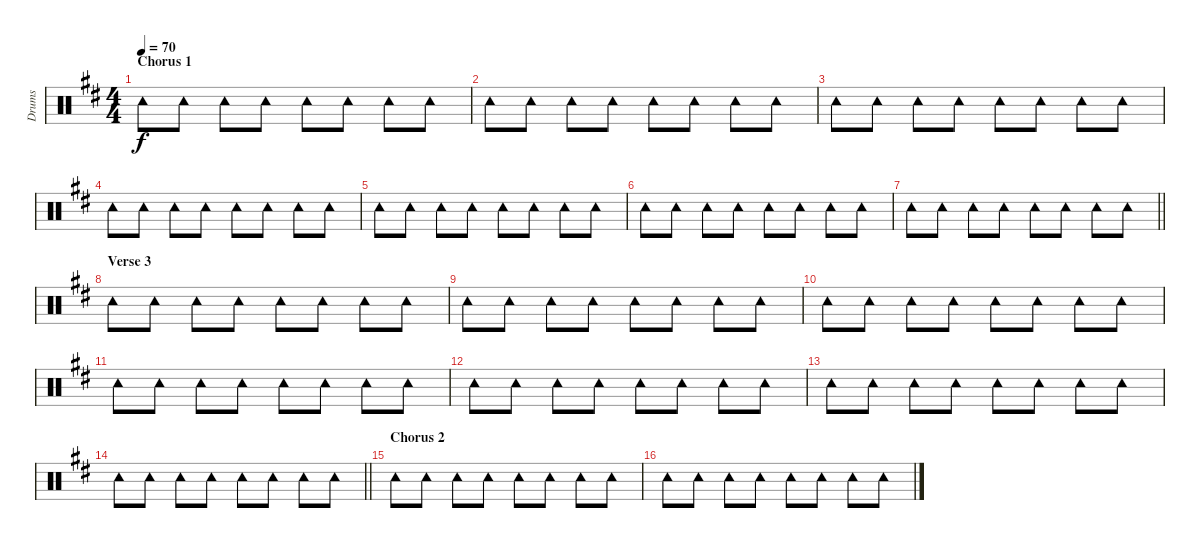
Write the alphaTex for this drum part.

\track ("Drums" "Drums") {instrument percussion}
\staff {score}
\articulation defaults
\ts (4 4)
\section ("" "Chorus 1")
\tempo 70
\clef neutral
\ks bminor "Tambourine (hit)".8{dy f} "Tambourine (hit)".8 "Tambourine (hit)".8 "Tambourine (hit)".8 "Tambourine (hit)".8 "Tambourine (hit)".8 "Tambourine (hit)".8 "Tambourine (hit)".8
|
"Tambourine (hit)".8 "Tambourine (hit)".8 "Tambourine (hit)".8 "Tambourine (hit)".8 "Tambourine (hit)".8 "Tambourine (hit)".8 "Tambourine (hit)".8 "Tambourine (hit)".8 |
"Tambourine (hit)".8 "Tambourine (hit)".8 "Tambourine (hit)".8 "Tambourine (hit)".8 "Tambourine (hit)".8 "Tambourine (hit)".8 "Tambourine (hit)".8 "Tambourine (hit)".8 |
"Tambourine (hit)".8 "Tambourine (hit)".8 "Tambourine (hit)".8 "Tambourine (hit)".8 "Tambourine (hit)".8 "Tambourine (hit)".8 "Tambourine (hit)".8 "Tambourine (hit)".8 |
"Tambourine (hit)".8 "Tambourine (hit)".8 "Tambourine (hit)".8 "Tambourine (hit)".8 "Tambourine (hit)".8 "Tambourine (hit)".8 "Tambourine (hit)".8 "Tambourine (hit)".8 |
"Tambourine (hit)".8 "Tambourine (hit)".8 "Tambourine (hit)".8 "Tambourine (hit)".8 "Tambourine (hit)".8 "Tambourine (hit)".8 "Tambourine (hit)".8 "Tambourine (hit)".8 |
\barLineRight lightlight "Tambourine (hit)".8 "Tambourine (hit)".8 "Tambourine (hit)".8 "Tambourine (hit)".8 "Tambourine (hit)".8 "Tambourine (hit)".8 "Tambourine (hit)".8 "Tambourine (hit)".8
|
\section ("" "Verse 3")
"Tambourine (hit)".8 "Tambourine (hit)".8 "Tambourine (hit)".8 "Tambourine (hit)".8 "Tambourine (hit)".8 "Tambourine (hit)".8 "Tambourine (hit)".8 "Tambourine (hit)".8 |
"Tambourine (hit)".8 "Tambourine (hit)".8 "Tambourine (hit)".8 "Tambourine (hit)".8 "Tambourine (hit)".8 "Tambourine (hit)".8 "Tambourine (hit)".8 "Tambourine (hit)".8 |
"Tambourine (hit)".8 "Tambourine (hit)".8 "Tambourine (hit)".8 "Tambourine (hit)".8 "Tambourine (hit)".8 "Tambourine (hit)".8 "Tambourine (hit)".8 "Tambourine (hit)".8 |
"Tambourine (hit)".8 "Tambourine (hit)".8 "Tambourine (hit)".8 "Tambourine (hit)".8 "Tambourine (hit)".8 "Tambourine (hit)".8 "Tambourine (hit)".8 "Tambourine (hit)".8 |
"Tambourine (hit)".8 "Tambourine (hit)".8 "Tambourine (hit)".8 "Tambourine (hit)".8 "Tambourine (hit)".8 "Tambourine (hit)".8 "Tambourine (hit)".8 "Tambourine (hit)".8 |
"Tambourine (hit)".8 "Tambourine (hit)".8 "Tambourine (hit)".8 "Tambourine (hit)".8 "Tambourine (hit)".8 "Tambourine (hit)".8 "Tambourine (hit)".8 "Tambourine (hit)".8 |
\barLineRight lightlight "Tambourine (hit)".8 "Tambourine (hit)".8 "Tambourine (hit)".8 "Tambourine (hit)".8 "Tambourine (hit)".8 "Tambourine (hit)".8 "Tambourine (hit)".8 "Tambourine (hit)".8
|
\section ("" "Chorus 2")
"Tambourine (hit)".8 "Tambourine (hit)".8 "Tambourine (hit)".8 "Tambourine (hit)".8 "Tambourine (hit)".8 "Tambourine (hit)".8 "Tambourine (hit)".8 "Tambourine (hit)".8 |
"Tambourine (hit)".8 "Tambourine (hit)".8 "Tambourine (hit)".8 "Tambourine (hit)".8 "Tambourine (hit)".8 "Tambourine (hit)".8 "Tambourine (hit)".8 "Tambourine (hit)".8
